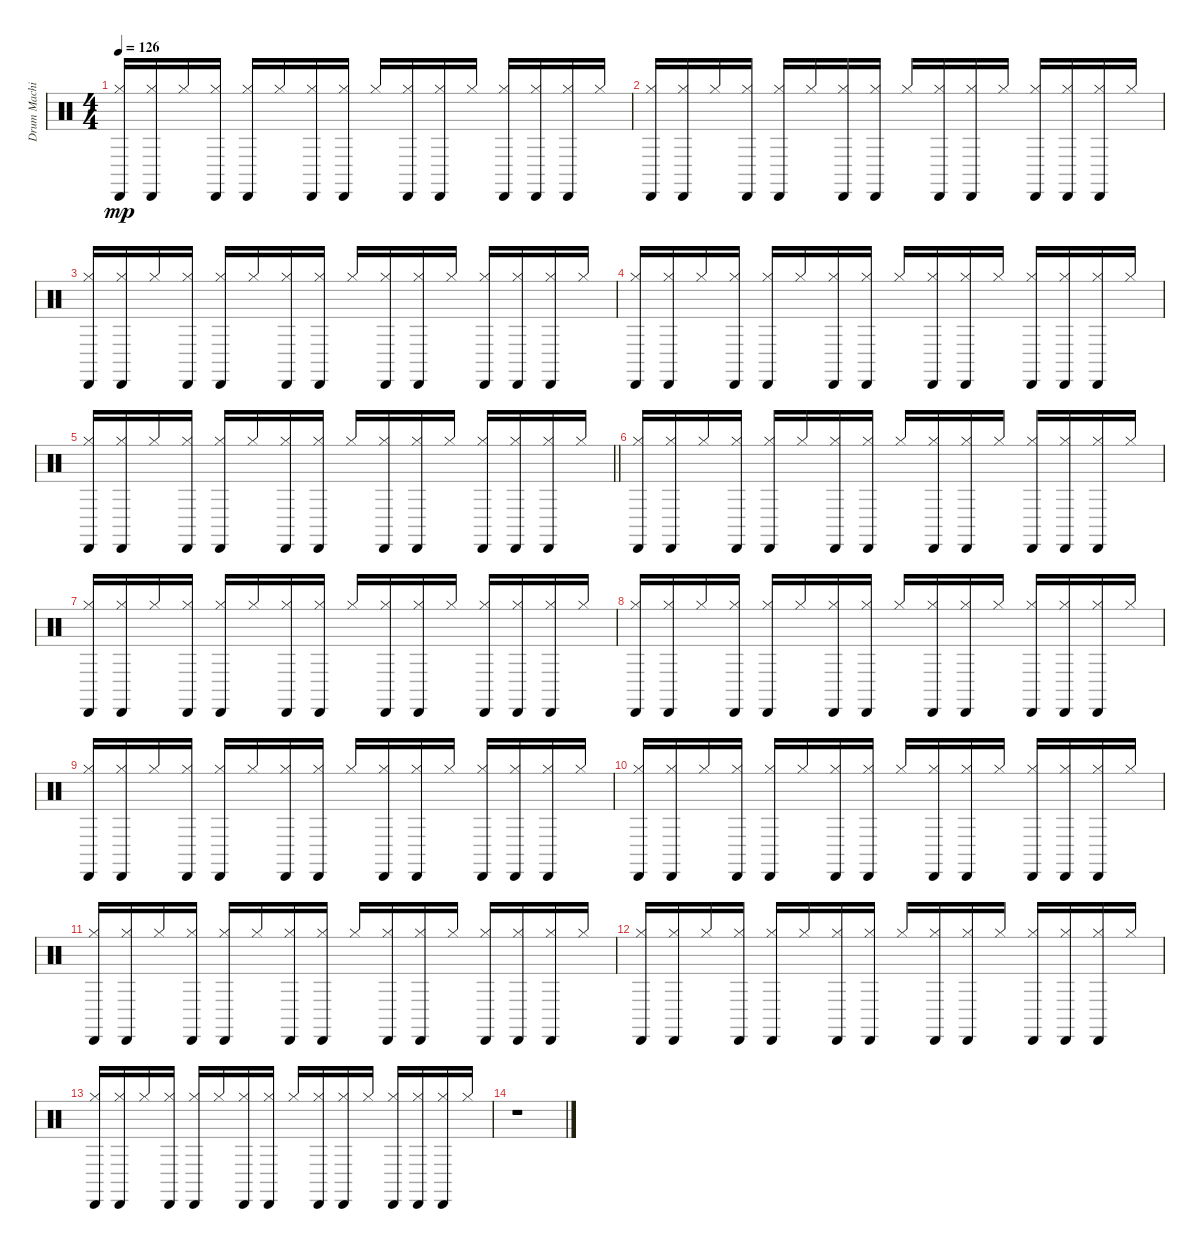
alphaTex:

\track ("Drum Machine" "Drum Machi") {instrument percussion}
\staff {score}
\articulation defaults
\ts (4 4)
\tempo 126
\clef neutral
\ks c
("Cabasa (hit)" "Hi-Hat (closed)").16{dy mp} ("Cabasa (hit)" "Hi-Hat (closed)").16 "Hi-Hat (closed)".16 ("Cabasa (hit)" "Hi-Hat (closed)").16 ("Cabasa (hit)" "Hi-Hat (closed)").16 "Hi-Hat (closed)".16 ("Cabasa (hit)" "Hi-Hat (closed)").16 ("Cabasa (hit)" "Hi-Hat (closed)").16 "Hi-Hat (closed)".16 ("Cabasa (hit)" "Hi-Hat (closed)").16 ("Cabasa (hit)" "Hi-Hat (closed)").16 "Hi-Hat (closed)".16 ("Cabasa (hit)" "Hi-Hat (closed)").16 ("Cabasa (hit)" "Hi-Hat (closed)").16 ("Cabasa (hit)" "Hi-Hat (closed)").16 "Hi-Hat (closed)".16 |
("Cabasa (hit)" "Hi-Hat (closed)").16 ("Cabasa (hit)" "Hi-Hat (closed)").16 "Hi-Hat (closed)".16 ("Cabasa (hit)" "Hi-Hat (closed)").16 ("Cabasa (hit)" "Hi-Hat (closed)").16 "Hi-Hat (closed)".16 ("Cabasa (hit)" "Hi-Hat (closed)").16 ("Cabasa (hit)" "Hi-Hat (closed)").16 "Hi-Hat (closed)".16 ("Cabasa (hit)" "Hi-Hat (closed)").16 ("Cabasa (hit)" "Hi-Hat (closed)").16 "Hi-Hat (closed)".16 ("Cabasa (hit)" "Hi-Hat (closed)").16 ("Cabasa (hit)" "Hi-Hat (closed)").16 ("Cabasa (hit)" "Hi-Hat (closed)").16 "Hi-Hat (closed)".16 |
("Cabasa (hit)" "Hi-Hat (closed)").16 ("Cabasa (hit)" "Hi-Hat (closed)").16 "Hi-Hat (closed)".16 ("Cabasa (hit)" "Hi-Hat (closed)").16 ("Cabasa (hit)" "Hi-Hat (closed)").16 "Hi-Hat (closed)".16 ("Cabasa (hit)" "Hi-Hat (closed)").16 ("Cabasa (hit)" "Hi-Hat (closed)").16 "Hi-Hat (closed)".16 ("Cabasa (hit)" "Hi-Hat (closed)").16 ("Cabasa (hit)" "Hi-Hat (closed)").16 "Hi-Hat (closed)".16 ("Cabasa (hit)" "Hi-Hat (closed)").16 ("Cabasa (hit)" "Hi-Hat (closed)").16 ("Cabasa (hit)" "Hi-Hat (closed)").16 "Hi-Hat (closed)".16 |
("Cabasa (hit)" "Hi-Hat (closed)").16 ("Cabasa (hit)" "Hi-Hat (closed)").16 "Hi-Hat (closed)".16 ("Cabasa (hit)" "Hi-Hat (closed)").16 ("Cabasa (hit)" "Hi-Hat (closed)").16 "Hi-Hat (closed)".16 ("Cabasa (hit)" "Hi-Hat (closed)").16 ("Cabasa (hit)" "Hi-Hat (closed)").16 "Hi-Hat (closed)".16 ("Cabasa (hit)" "Hi-Hat (closed)").16 ("Cabasa (hit)" "Hi-Hat (closed)").16 "Hi-Hat (closed)".16 ("Cabasa (hit)" "Hi-Hat (closed)").16 ("Cabasa (hit)" "Hi-Hat (closed)").16 ("Cabasa (hit)" "Hi-Hat (closed)").16 "Hi-Hat (closed)".16 |
\barLineRight lightlight
("Cabasa (hit)" "Hi-Hat (closed)").16 ("Cabasa (hit)" "Hi-Hat (closed)").16 "Hi-Hat (closed)".16 ("Cabasa (hit)" "Hi-Hat (closed)").16 ("Cabasa (hit)" "Hi-Hat (closed)").16 "Hi-Hat (closed)".16 ("Cabasa (hit)" "Hi-Hat (closed)").16 ("Cabasa (hit)" "Hi-Hat (closed)").16 "Hi-Hat (closed)".16 ("Cabasa (hit)" "Hi-Hat (closed)").16 ("Cabasa (hit)" "Hi-Hat (closed)").16 "Hi-Hat (closed)".16 ("Cabasa (hit)" "Hi-Hat (closed)").16 ("Cabasa (hit)" "Hi-Hat (closed)").16 ("Cabasa (hit)" "Hi-Hat (closed)").16 "Hi-Hat (closed)".16 |
("Cabasa (hit)" "Hi-Hat (closed)").16 ("Cabasa (hit)" "Hi-Hat (closed)").16 "Hi-Hat (closed)".16 ("Cabasa (hit)" "Hi-Hat (closed)").16 ("Cabasa (hit)" "Hi-Hat (closed)").16 "Hi-Hat (closed)".16 ("Cabasa (hit)" "Hi-Hat (closed)").16 ("Cabasa (hit)" "Hi-Hat (closed)").16 "Hi-Hat (closed)".16 ("Cabasa (hit)" "Hi-Hat (closed)").16 ("Cabasa (hit)" "Hi-Hat (closed)").16 "Hi-Hat (closed)".16 ("Cabasa (hit)" "Hi-Hat (closed)").16 ("Cabasa (hit)" "Hi-Hat (closed)").16 ("Cabasa (hit)" "Hi-Hat (closed)").16 "Hi-Hat (closed)".16 |
("Cabasa (hit)" "Hi-Hat (closed)").16 ("Cabasa (hit)" "Hi-Hat (closed)").16 "Hi-Hat (closed)".16 ("Cabasa (hit)" "Hi-Hat (closed)").16 ("Cabasa (hit)" "Hi-Hat (closed)").16 "Hi-Hat (closed)".16 ("Cabasa (hit)" "Hi-Hat (closed)").16 ("Cabasa (hit)" "Hi-Hat (closed)").16 "Hi-Hat (closed)".16 ("Cabasa (hit)" "Hi-Hat (closed)").16 ("Cabasa (hit)" "Hi-Hat (closed)").16 "Hi-Hat (closed)".16 ("Cabasa (hit)" "Hi-Hat (closed)").16 ("Cabasa (hit)" "Hi-Hat (closed)").16 ("Cabasa (hit)" "Hi-Hat (closed)").16 "Hi-Hat (closed)".16 |
("Cabasa (hit)" "Hi-Hat (closed)").16 ("Cabasa (hit)" "Hi-Hat (closed)").16 "Hi-Hat (closed)".16 ("Cabasa (hit)" "Hi-Hat (closed)").16 ("Cabasa (hit)" "Hi-Hat (closed)").16 "Hi-Hat (closed)".16 ("Cabasa (hit)" "Hi-Hat (closed)").16 ("Cabasa (hit)" "Hi-Hat (closed)").16 "Hi-Hat (closed)".16 ("Cabasa (hit)" "Hi-Hat (closed)").16 ("Cabasa (hit)" "Hi-Hat (closed)").16 "Hi-Hat (closed)".16 ("Cabasa (hit)" "Hi-Hat (closed)").16 ("Cabasa (hit)" "Hi-Hat (closed)").16 ("Cabasa (hit)" "Hi-Hat (closed)").16 "Hi-Hat (closed)".16 |
("Cabasa (hit)" "Hi-Hat (closed)").16 ("Cabasa (hit)" "Hi-Hat (closed)").16 "Hi-Hat (closed)".16 ("Cabasa (hit)" "Hi-Hat (closed)").16 ("Cabasa (hit)" "Hi-Hat (closed)").16 "Hi-Hat (closed)".16 ("Cabasa (hit)" "Hi-Hat (closed)").16 ("Cabasa (hit)" "Hi-Hat (closed)").16 "Hi-Hat (closed)".16 ("Cabasa (hit)" "Hi-Hat (closed)").16 ("Cabasa (hit)" "Hi-Hat (closed)").16 "Hi-Hat (closed)".16 ("Cabasa (hit)" "Hi-Hat (closed)").16 ("Cabasa (hit)" "Hi-Hat (closed)").16 ("Cabasa (hit)" "Hi-Hat (closed)").16 "Hi-Hat (closed)".16 |
("Cabasa (hit)" "Hi-Hat (closed)").16 ("Cabasa (hit)" "Hi-Hat (closed)").16 "Hi-Hat (closed)".16 ("Cabasa (hit)" "Hi-Hat (closed)").16 ("Cabasa (hit)" "Hi-Hat (closed)").16 "Hi-Hat (closed)".16 ("Cabasa (hit)" "Hi-Hat (closed)").16 ("Cabasa (hit)" "Hi-Hat (closed)").16 "Hi-Hat (closed)".16 ("Cabasa (hit)" "Hi-Hat (closed)").16 ("Cabasa (hit)" "Hi-Hat (closed)").16 "Hi-Hat (closed)".16 ("Cabasa (hit)" "Hi-Hat (closed)").16 ("Cabasa (hit)" "Hi-Hat (closed)").16 ("Cabasa (hit)" "Hi-Hat (closed)").16 "Hi-Hat (closed)".16 |
("Cabasa (hit)" "Hi-Hat (closed)").16 ("Cabasa (hit)" "Hi-Hat (closed)").16 "Hi-Hat (closed)".16 ("Cabasa (hit)" "Hi-Hat (closed)").16 ("Cabasa (hit)" "Hi-Hat (closed)").16 "Hi-Hat (closed)".16 ("Cabasa (hit)" "Hi-Hat (closed)").16 ("Cabasa (hit)" "Hi-Hat (closed)").16 "Hi-Hat (closed)".16 ("Cabasa (hit)" "Hi-Hat (closed)").16 ("Cabasa (hit)" "Hi-Hat (closed)").16 "Hi-Hat (closed)".16 ("Cabasa (hit)" "Hi-Hat (closed)").16 ("Cabasa (hit)" "Hi-Hat (closed)").16 ("Cabasa (hit)" "Hi-Hat (closed)").16 "Hi-Hat (closed)".16 |
("Cabasa (hit)" "Hi-Hat (closed)").16 ("Cabasa (hit)" "Hi-Hat (closed)").16 "Hi-Hat (closed)".16 ("Cabasa (hit)" "Hi-Hat (closed)").16 ("Cabasa (hit)" "Hi-Hat (closed)").16 "Hi-Hat (closed)".16 ("Cabasa (hit)" "Hi-Hat (closed)").16 ("Cabasa (hit)" "Hi-Hat (closed)").16 "Hi-Hat (closed)".16 ("Cabasa (hit)" "Hi-Hat (closed)").16 ("Cabasa (hit)" "Hi-Hat (closed)").16 "Hi-Hat (closed)".16 ("Cabasa (hit)" "Hi-Hat (closed)").16 ("Cabasa (hit)" "Hi-Hat (closed)").16 ("Cabasa (hit)" "Hi-Hat (closed)").16 "Hi-Hat (closed)".16 |
("Cabasa (hit)" "Hi-Hat (closed)").16 ("Cabasa (hit)" "Hi-Hat (closed)").16 "Hi-Hat (closed)".16 ("Cabasa (hit)" "Hi-Hat (closed)").16 ("Cabasa (hit)" "Hi-Hat (closed)").16 "Hi-Hat (closed)".16 ("Cabasa (hit)" "Hi-Hat (closed)").16 ("Cabasa (hit)" "Hi-Hat (closed)").16 "Hi-Hat (closed)".16 ("Cabasa (hit)" "Hi-Hat (closed)").16 ("Cabasa (hit)" "Hi-Hat (closed)").16 "Hi-Hat (closed)".16 ("Cabasa (hit)" "Hi-Hat (closed)").16 ("Cabasa (hit)" "Hi-Hat (closed)").16 ("Cabasa (hit)" "Hi-Hat (closed)").16 "Hi-Hat (closed)".16 |
r.1
